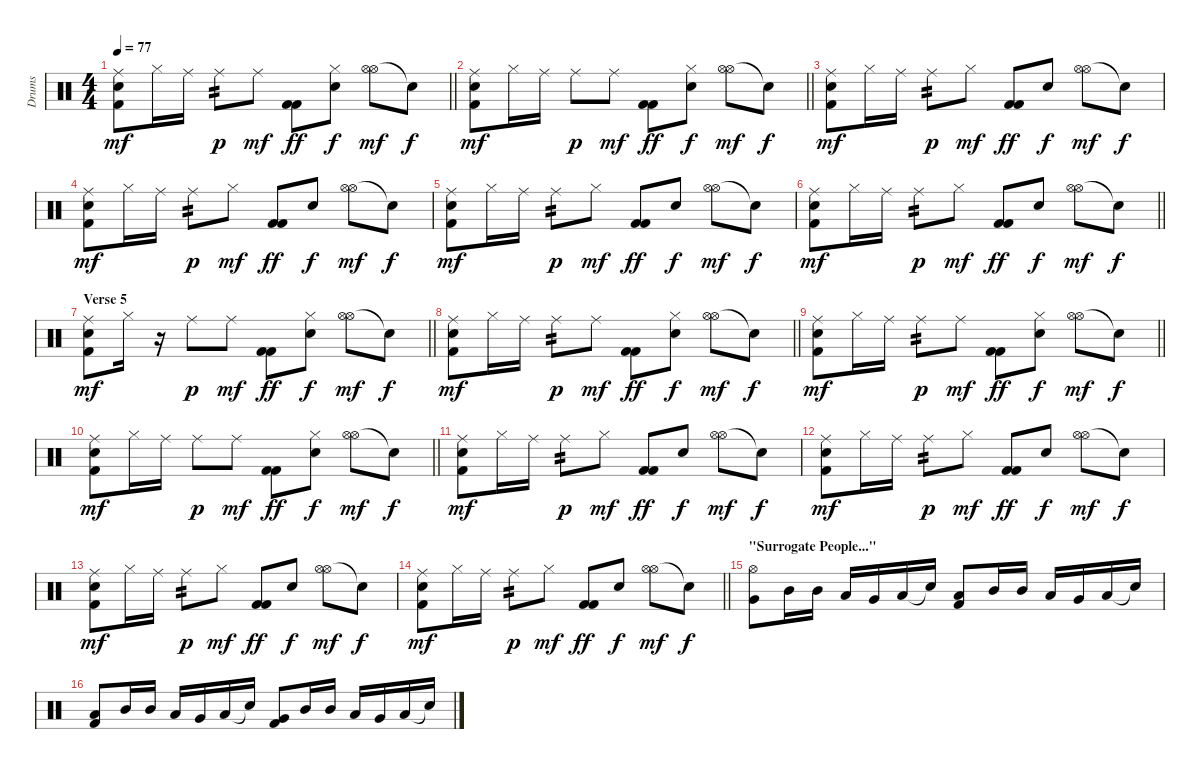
\track ("Drums" "Drums") {instrument percussion}
\staff {score}
\articulation defaults
\ts (4 4)
\tempo 77
\clef neutral
\barLineRight lightlight
\ks c
("Ride (middle)" "Electric Snare (hit)" "Kick (hit) 2").8{dy mf} "Hi-Hat (closed)".16 "Ride (middle)".16 "Ride (middle)".8{tp 2 dy p} "Ride (middle)".8{dy mf} ("Kick (hit) 2" "Kick (hit) 2").8{dy ff} ("Hi-Hat (closed)" "Snare (hit) 2").8{dy f} ("Hi-Hat (open)" "Hi-Hat (open)").8{dy mf} "Snare (hit)"{t}.8{dy f} |
\barLineRight lightlight
("Ride (middle)" "Electric Snare (hit)" "Kick (hit) 2").8{dy mf} "Hi-Hat (closed)".16 "Ride (middle)".16 "Ride (middle)".8{dy p} "Ride (middle)".8{dy mf} ("Kick (hit) 2" "Kick (hit) 2").8{dy ff} ("Hi-Hat (closed)" "Snare (hit) 2").8{dy f} ("Hi-Hat (open)" "Hi-Hat (open)").8{dy mf} "Snare (hit)"{t}.8{dy f} |
("Ride (middle)" "Electric Snare (hit)" "Kick (hit) 2").8{dy mf} "Hi-Hat (closed)".16 "Ride (middle)".16 "Ride (middle)".8{tp 2 dy p} "Hi-Hat (closed)".8{dy mf} ("Kick (hit) 2" "Kick (hit) 2").8{dy ff} "Snare (hit) 2".8{dy f} ("Hi-Hat (open)" "Hi-Hat (open)").8{dy mf} "Snare (hit)"{t}.8{dy f} |
("Ride (middle)" "Electric Snare (hit)" "Kick (hit) 2").8{dy mf} "Hi-Hat (closed)".16 "Ride (middle)".16 "Ride (middle)".8{tp 2 dy p} "Hi-Hat (closed)".8{dy mf} ("Kick (hit) 2" "Kick (hit) 2").8{dy ff} "Snare (hit) 2".8{dy f} ("Hi-Hat (open)" "Hi-Hat (open)").8{dy mf} "Snare (hit)"{t}.8{dy f} |
("Ride (middle)" "Electric Snare (hit)" "Kick (hit) 2").8{dy mf} "Hi-Hat (closed)".16 "Ride (middle)".16 "Ride (middle)".8{tp 2 dy p} "Hi-Hat (closed)".8{dy mf} ("Kick (hit) 2" "Kick (hit) 2").8{dy ff} "Snare (hit) 2".8{dy f} ("Hi-Hat (open)" "Hi-Hat (open)").8{dy mf} "Snare (hit)"{t}.8{dy f} |
\barLineRight lightlight
("Ride (middle)" "Electric Snare (hit)" "Kick (hit) 2").8{dy mf} "Hi-Hat (closed)".16 "Ride (middle)".16 "Ride (middle)".8{tp 2 dy p} "Hi-Hat (closed)".8{dy mf} ("Kick (hit) 2" "Kick (hit) 2").8{dy ff} "Snare (hit) 2".8{dy f} ("Hi-Hat (open)" "Hi-Hat (open)").8{dy mf} "Snare (hit)"{t}.8{dy f} |
\section ("" "Verse 5")
\barLineRight lightlight
("Ride (middle)" "Electric Snare (hit)" "Kick (hit) 2").8{dy mf} "Hi-Hat (closed)".16 r.16 "Ride (middle)".8{dy p} "Ride (middle)".8{dy mf} ("Kick (hit) 2" "Kick (hit) 2").8{dy ff} ("Hi-Hat (closed)" "Snare (hit) 2").8{dy f} ("Hi-Hat (open)" "Hi-Hat (open)").8{dy mf} "Snare (hit)"{t}.8{dy f} |
\barLineRight lightlight
("Ride (middle)" "Electric Snare (hit)" "Kick (hit) 2").8{dy mf} "Hi-Hat (closed)".16 "Ride (middle)".16 "Ride (middle)".8{tp 2 dy p} "Ride (middle)".8{dy mf} ("Kick (hit) 2" "Kick (hit) 2").8{dy ff} ("Hi-Hat (closed)" "Snare (hit) 2").8{dy f} ("Hi-Hat (open)" "Hi-Hat (open)").8{dy mf} "Snare (hit)"{t}.8{dy f} |
\barLineRight lightlight
("Ride (middle)" "Electric Snare (hit)" "Kick (hit) 2").8{dy mf} "Hi-Hat (closed)".16 "Ride (middle)".16 "Ride (middle)".8{tp 2 dy p} "Ride (middle)".8{dy mf} ("Kick (hit) 2" "Kick (hit) 2").8{dy ff} ("Hi-Hat (closed)" "Snare (hit) 2").8{dy f} ("Hi-Hat (open)" "Hi-Hat (open)").8{dy mf} "Snare (hit)"{t}.8{dy f} |
\barLineRight lightlight
("Ride (middle)" "Electric Snare (hit)" "Kick (hit) 2").8{dy mf} "Hi-Hat (closed)".16 "Ride (middle)".16 "Ride (middle)".8{dy p} "Ride (middle)".8{dy mf} ("Kick (hit) 2" "Kick (hit) 2").8{dy ff} ("Hi-Hat (closed)" "Snare (hit) 2").8{dy f} ("Hi-Hat (open)" "Hi-Hat (open)").8{dy mf} "Snare (hit)"{t}.8{dy f} |
("Ride (middle)" "Electric Snare (hit)" "Kick (hit) 2").8{dy mf} "Hi-Hat (closed)".16 "Ride (middle)".16 "Ride (middle)".8{tp 2 dy p} "Hi-Hat (closed)".8{dy mf} ("Kick (hit) 2" "Kick (hit) 2").8{dy ff} "Snare (hit) 2".8{dy f} ("Hi-Hat (open)" "Hi-Hat (open)").8{dy mf} "Snare (hit)"{t}.8{dy f} |
("Ride (middle)" "Electric Snare (hit)" "Kick (hit) 2").8{dy mf} "Hi-Hat (closed)".16 "Ride (middle)".16 "Ride (middle)".8{tp 2 dy p} "Hi-Hat (closed)".8{dy mf} ("Kick (hit) 2" "Kick (hit) 2").8{dy ff} "Snare (hit) 2".8{dy f} ("Hi-Hat (open)" "Hi-Hat (open)").8{dy mf} "Snare (hit)"{t}.8{dy f} |
("Ride (middle)" "Electric Snare (hit)" "Kick (hit) 2").8{dy mf} "Hi-Hat (closed)".16 "Ride (middle)".16 "Ride (middle)".8{tp 2 dy p} "Hi-Hat (closed)".8{dy mf} ("Kick (hit) 2" "Kick (hit) 2").8{dy ff} "Snare (hit) 2".8{dy f} ("Hi-Hat (open)" "Hi-Hat (open)").8{dy mf} "Snare (hit)"{t}.8{dy f} |
\barLineRight lightlight
("Ride (middle)" "Electric Snare (hit)" "Kick (hit) 2").8{dy mf} "Hi-Hat (closed)".16 "Ride (middle)".16 "Ride (middle)".8{tp 2 dy p} "Hi-Hat (closed)".8{dy mf} ("Kick (hit) 2" "Kick (hit) 2").8{dy ff} "Snare (hit) 2".8{dy f} ("Hi-Hat (open)" "Hi-Hat (open)").8{dy mf} "Snare (hit)"{t}.8{dy f} |
\section ("" "\"Surrogate People...\"")
("Very Low Tom (hit)" "Hi-Hat (open)").8 "Mid Tom (hit)".16 "Mid Tom (hit)".16 "Low Tom (hit)".16 "Very Low Tom (hit)".16 "Low Floor Tom (hit)".16 "Snare (hit)"{t}.16 ("Low Floor Tom (hit)" "Kick (hit) 2").8 "Mid Tom (hit)".16 "Mid Tom (hit)".16 "Low Tom (hit)".16 "Very Low Tom (hit)".16 "Low Floor Tom (hit)".16 "Snare (hit)"{t}.16 |
("Low Floor Tom (hit)" "Kick (hit) 2").8 "Mid Tom (hit)".16 "Mid Tom (hit)".16 "Low Tom (hit)".16 "Very Low Tom (hit)".16 "Low Floor Tom (hit)".16 "Snare (hit)"{t}.16 ("Very Low Tom (hit)" "Kick (hit) 2").8 "Mid Tom (hit)".16 "Mid Tom (hit)".16 "Low Tom (hit)".16 "Very Low Tom (hit)".16 "Low Floor Tom (hit)".16 "Snare (hit)"{t}.16
